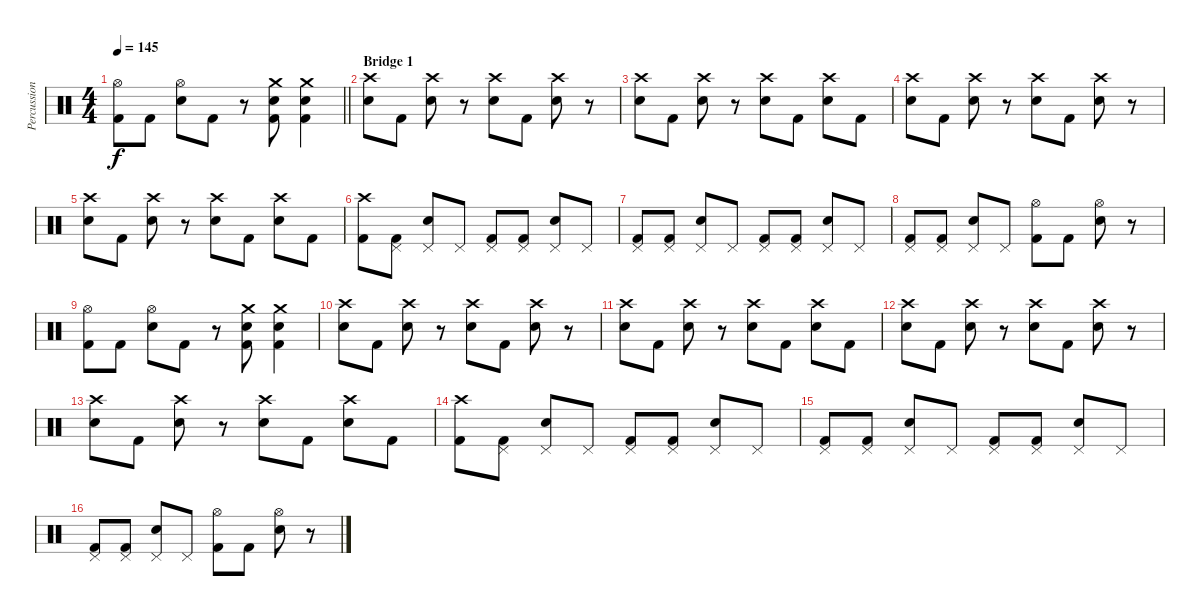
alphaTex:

\track ("Percussion" "Percussion") {instrument percussion}
\staff {score}
\articulation defaults
\ts (4 4)
\tempo 145
\clef neutral
\barLineRight lightlight
\ks c
("Hi-Hat (open)" "Kick (hit) 2").8{dy f} "Kick (hit) 2".8 ("Hi-Hat (open)" "Snare (hit) 2").8 "Kick (hit) 2".8 r.8 ("Crash medium (hit)" "Snare (hit) 2" "Kick (hit) 2").8 ("Crash medium (hit)" "Snare (hit) 2" "Kick (hit) 2").4 |
\section ("" "Bridge 1")
("Crash high (hit)" "Snare (hit) 2").8 "Kick (hit) 2".8 ("Crash high (hit)" "Snare (hit) 2").8 r.8 ("Crash high (hit)" "Snare (hit) 2").8 "Kick (hit) 2".8 ("Crash high (hit)" "Snare (hit) 2").8 r.8 |
("Crash high (hit)" "Snare (hit) 2").8 "Kick (hit) 2".8 ("Crash high (hit)" "Snare (hit) 2").8 r.8 ("Crash high (hit)" "Snare (hit) 2").8 "Kick (hit) 2".8 ("Crash high (hit)" "Snare (hit) 2").8 "Kick (hit) 2".8 |
("Crash high (hit)" "Snare (hit) 2").8 "Kick (hit) 2".8 ("Crash high (hit)" "Snare (hit) 2").8 r.8 ("Crash high (hit)" "Snare (hit) 2").8 "Kick (hit) 2".8 ("Crash high (hit)" "Snare (hit) 2").8 r.8 |
("Crash high (hit)" "Snare (hit) 2").8 "Kick (hit) 2".8 ("Crash high (hit)" "Snare (hit) 2").8 r.8 ("Crash high (hit)" "Snare (hit) 2").8 "Kick (hit) 2".8 ("Crash high (hit)" "Snare (hit) 2").8 "Kick (hit) 2".8 |
("Crash high (hit)" "Kick (hit) 2").8 ("Pedal Hi-Hat (hit)" "Kick (hit) 2").8 ("Pedal Hi-Hat (hit)" "Snare (hit) 2").8 "Pedal Hi-Hat (hit)".8 ("Pedal Hi-Hat (hit)" "Kick (hit) 2").8 ("Pedal Hi-Hat (hit)" "Kick (hit) 2").8 ("Pedal Hi-Hat (hit)" "Snare (hit) 2").8 "Pedal Hi-Hat (hit)".8 |
("Pedal Hi-Hat (hit)" "Kick (hit) 2").8 ("Pedal Hi-Hat (hit)" "Kick (hit) 2").8 ("Pedal Hi-Hat (hit)" "Snare (hit) 2").8 "Pedal Hi-Hat (hit)".8 ("Pedal Hi-Hat (hit)" "Kick (hit) 2").8 ("Pedal Hi-Hat (hit)" "Kick (hit) 2").8 ("Pedal Hi-Hat (hit)" "Snare (hit) 2").8 "Pedal Hi-Hat (hit)".8 |
("Pedal Hi-Hat (hit)" "Kick (hit) 2").8 ("Pedal Hi-Hat (hit)" "Kick (hit) 2").8 ("Pedal Hi-Hat (hit)" "Snare (hit) 2").8 "Pedal Hi-Hat (hit)".8 ("Hi-Hat (open)" "Kick (hit) 2").8 "Kick (hit) 2".8 ("Hi-Hat (open)" "Snare (hit) 2").8 r.8 |
("Hi-Hat (open)" "Kick (hit) 2").8 "Kick (hit) 2".8 ("Hi-Hat (open)" "Snare (hit) 2").8 "Kick (hit) 2".8 r.8 ("Crash medium (hit)" "Snare (hit) 2" "Kick (hit) 2").8 ("Crash medium (hit)" "Snare (hit) 2" "Kick (hit) 2").4 |
("Crash high (hit)" "Snare (hit) 2").8 "Kick (hit) 2".8 ("Crash high (hit)" "Snare (hit) 2").8 r.8 ("Crash high (hit)" "Snare (hit) 2").8 "Kick (hit) 2".8 ("Crash high (hit)" "Snare (hit) 2").8 r.8 |
("Crash high (hit)" "Snare (hit) 2").8 "Kick (hit) 2".8 ("Crash high (hit)" "Snare (hit) 2").8 r.8 ("Crash high (hit)" "Snare (hit) 2").8 "Kick (hit) 2".8 ("Crash high (hit)" "Snare (hit) 2").8 "Kick (hit) 2".8 |
("Crash high (hit)" "Snare (hit) 2").8 "Kick (hit) 2".8 ("Crash high (hit)" "Snare (hit) 2").8 r.8 ("Crash high (hit)" "Snare (hit) 2").8 "Kick (hit) 2".8 ("Crash high (hit)" "Snare (hit) 2").8 r.8 |
("Crash high (hit)" "Snare (hit) 2").8 "Kick (hit) 2".8 ("Crash high (hit)" "Snare (hit) 2").8 r.8 ("Crash high (hit)" "Snare (hit) 2").8 "Kick (hit) 2".8 ("Crash high (hit)" "Snare (hit) 2").8 "Kick (hit) 2".8 |
("Crash high (hit)" "Kick (hit) 2").8 ("Pedal Hi-Hat (hit)" "Kick (hit) 2").8 ("Pedal Hi-Hat (hit)" "Snare (hit) 2").8 "Pedal Hi-Hat (hit)".8 ("Pedal Hi-Hat (hit)" "Kick (hit) 2").8 ("Pedal Hi-Hat (hit)" "Kick (hit) 2").8 ("Pedal Hi-Hat (hit)" "Snare (hit) 2").8 "Pedal Hi-Hat (hit)".8 |
("Pedal Hi-Hat (hit)" "Kick (hit) 2").8 ("Pedal Hi-Hat (hit)" "Kick (hit) 2").8 ("Pedal Hi-Hat (hit)" "Snare (hit) 2").8 "Pedal Hi-Hat (hit)".8 ("Pedal Hi-Hat (hit)" "Kick (hit) 2").8 ("Pedal Hi-Hat (hit)" "Kick (hit) 2").8 ("Pedal Hi-Hat (hit)" "Snare (hit) 2").8 "Pedal Hi-Hat (hit)".8 |
("Pedal Hi-Hat (hit)" "Kick (hit) 2").8 ("Pedal Hi-Hat (hit)" "Kick (hit) 2").8 ("Pedal Hi-Hat (hit)" "Snare (hit) 2").8 "Pedal Hi-Hat (hit)".8 ("Hi-Hat (open)" "Kick (hit) 2").8 "Kick (hit) 2".8 ("Hi-Hat (open)" "Snare (hit) 2").8 r.8
